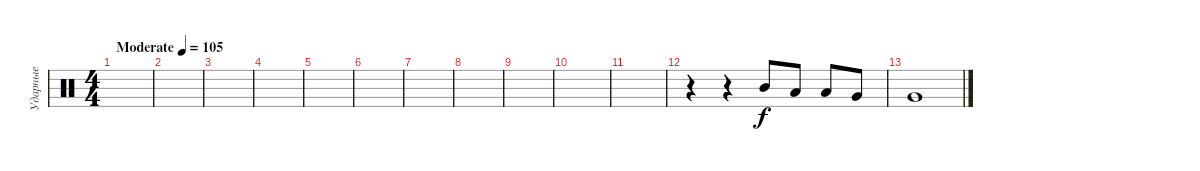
\track ("Ударные" "Ударные") {instrument percussion}
\staff {score}
\articulation defaults
\ts (4 4)
\tempo (105 "Moderate")
\clef neutral
\ks c
|
|
|
|
|
|
|
|
|
|
|
r.4 r.4 "Mid Tom (hit)".8 "Low Tom (hit)".8 "Low Tom (hit)".8 "Very Low Tom (hit)".8 |
"Very Low Tom (hit)".1
